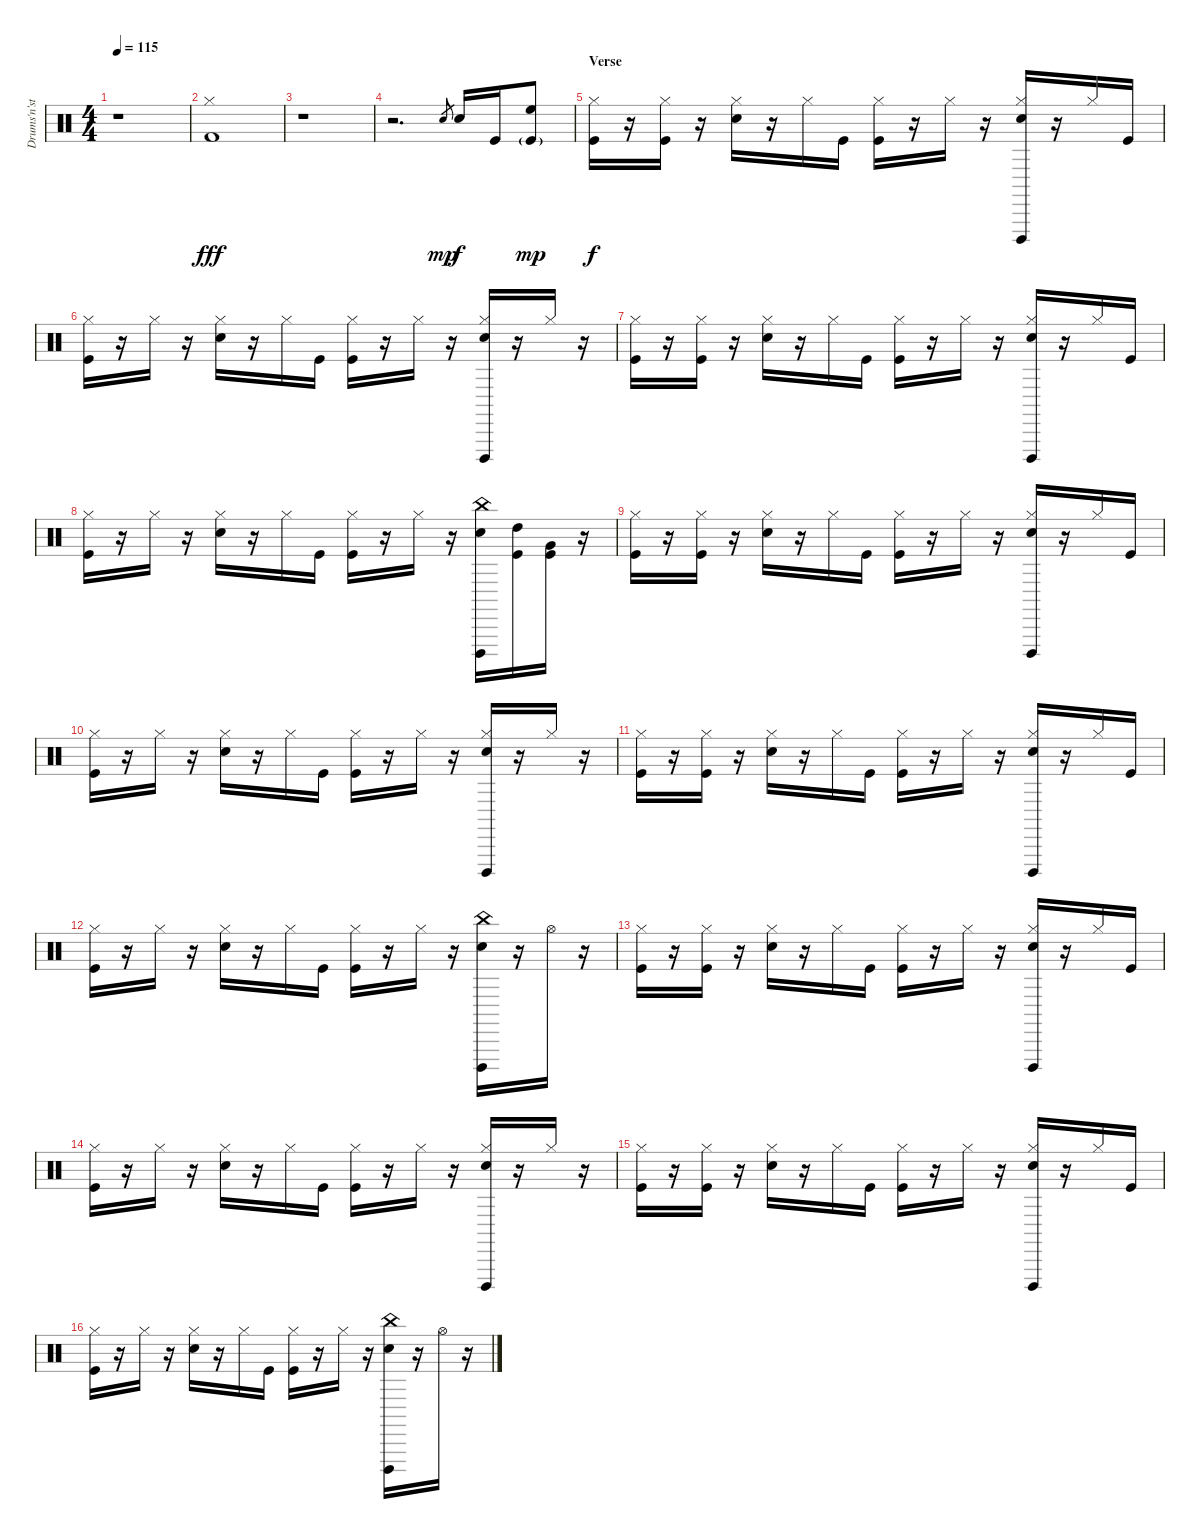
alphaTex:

\track ("Drums'n'stuff" "Drums'n'st") {instrument percussion}
\staff {score}
\articulation defaults
\ts (4 4)
\tempo 115
\clef neutral
\ks c
r.1{dy fff volume 11} |
("Hi-Hat (closed)" "Kick (hit) 2").1 |
r.1 |
r.2{d volume 14} "Electric Snare (hit)".8{gr dy mp} "Electric Snare (hit)".16{dy f} "Kick (hit)".16 ("High Floor Tom (hit)" "Kick (hit)"{g}).8{dy mp} |
\section ("" "Verse")
("Hi-Hat (closed)" "Kick (hit)").16{dy f} r.16 ("Hi-Hat (closed)" "Kick (hit)").16 r.16 ("Hi-Hat (closed)" "Electric Snare (hit)").16 r.16 "Hi-Hat (closed)".16 "Kick (hit)".16 ("Hi-Hat (closed)" "Kick (hit)").16 r.16 "Hi-Hat (closed)".16 r.16 ("Hi-Hat (closed)" "Electric Snare (hit)" "Cuica (open)").16 r.16 "Hi-Hat (closed)".16 "Kick (hit)".16 |
("Hi-Hat (closed)" "Kick (hit)").16 r.16 "Hi-Hat (closed)".16 r.16 ("Hi-Hat (closed)" "Electric Snare (hit)").16 r.16 "Hi-Hat (closed)".16 "Kick (hit)".16 ("Hi-Hat (closed)" "Kick (hit)").16 r.16 "Hi-Hat (closed)".16 r.16 ("Hi-Hat (closed)" "Electric Snare (hit)" "Cuica (open)").16 r.16 "Hi-Hat (closed)".16 r.16 |
("Hi-Hat (closed)" "Kick (hit)").16 r.16 ("Hi-Hat (closed)" "Kick (hit)").16 r.16 ("Hi-Hat (closed)" "Electric Snare (hit)").16 r.16 "Hi-Hat (closed)".16 "Kick (hit)".16 ("Hi-Hat (closed)" "Kick (hit)").16 r.16 "Hi-Hat (closed)".16 r.16 ("Hi-Hat (closed)" "Electric Snare (hit)" "Cuica (open)").16 r.16 "Hi-Hat (closed)".16 "Kick (hit)".16 |
("Hi-Hat (closed)" "Kick (hit)").16 r.16 "Hi-Hat (closed)".16 r.16 ("Hi-Hat (closed)" "Electric Snare (hit)").16 r.16 "Hi-Hat (closed)".16 "Kick (hit)".16 ("Hi-Hat (closed)" "Kick (hit)").16 r.16 "Hi-Hat (closed)".16 r.16 ("China (hit)" "Electric Snare (hit)" "Cuica (open)").16 ("High Tom (hit)" "Kick (hit)").16 ("Very Low Tom (hit)" "Kick (hit)").16 r.16 |
("Hi-Hat (closed)" "Kick (hit)").16 r.16 ("Hi-Hat (closed)" "Kick (hit)").16 r.16 ("Hi-Hat (closed)" "Electric Snare (hit)").16 r.16 "Hi-Hat (closed)".16 "Kick (hit)".16 ("Hi-Hat (closed)" "Kick (hit)").16 r.16 "Hi-Hat (closed)".16 r.16 ("Hi-Hat (closed)" "Electric Snare (hit)" "Cuica (open)").16 r.16 "Hi-Hat (closed)".16 "Kick (hit)".16 |
("Hi-Hat (closed)" "Kick (hit)").16 r.16 "Hi-Hat (closed)".16 r.16 ("Hi-Hat (closed)" "Electric Snare (hit)").16 r.16 "Hi-Hat (closed)".16 "Kick (hit)".16 ("Hi-Hat (closed)" "Kick (hit)").16 r.16 "Hi-Hat (closed)".16 r.16 ("Hi-Hat (closed)" "Electric Snare (hit)" "Cuica (open)").16 r.16 "Hi-Hat (closed)".16 r.16 |
("Hi-Hat (closed)" "Kick (hit)").16 r.16 ("Hi-Hat (closed)" "Kick (hit)").16 r.16 ("Hi-Hat (closed)" "Electric Snare (hit)").16 r.16 "Hi-Hat (closed)".16 "Kick (hit)".16 ("Hi-Hat (closed)" "Kick (hit)").16 r.16 "Hi-Hat (closed)".16 r.16 ("Hi-Hat (closed)" "Electric Snare (hit)" "Cuica (open)").16 r.16 "Hi-Hat (closed)".16 "Kick (hit)".16 |
("Hi-Hat (closed)" "Kick (hit)").16 r.16 "Hi-Hat (closed)".16 r.16 ("Hi-Hat (closed)" "Electric Snare (hit)").16 r.16 "Hi-Hat (closed)".16 "Kick (hit)".16 ("Hi-Hat (closed)" "Kick (hit)").16 r.16 "Hi-Hat (closed)".16 r.16 ("China (hit)" "Electric Snare (hit)" "Cuica (open)").16 r.16 "Hi-Hat (open)".16 r.16 |
("Hi-Hat (closed)" "Kick (hit)").16 r.16 ("Hi-Hat (closed)" "Kick (hit)").16 r.16 ("Hi-Hat (closed)" "Electric Snare (hit)").16 r.16 "Hi-Hat (closed)".16 "Kick (hit)".16 ("Hi-Hat (closed)" "Kick (hit)").16 r.16 "Hi-Hat (closed)".16 r.16 ("Hi-Hat (closed)" "Electric Snare (hit)" "Cuica (open)").16 r.16 "Hi-Hat (closed)".16 "Kick (hit)".16 |
("Hi-Hat (closed)" "Kick (hit)").16 r.16 "Hi-Hat (closed)".16 r.16 ("Hi-Hat (closed)" "Electric Snare (hit)").16 r.16 "Hi-Hat (closed)".16 "Kick (hit)".16 ("Hi-Hat (closed)" "Kick (hit)").16 r.16 "Hi-Hat (closed)".16 r.16 ("Hi-Hat (closed)" "Electric Snare (hit)" "Cuica (open)").16 r.16 "Hi-Hat (closed)".16 r.16 |
("Hi-Hat (closed)" "Kick (hit)").16 r.16 ("Hi-Hat (closed)" "Kick (hit)").16 r.16 ("Hi-Hat (closed)" "Electric Snare (hit)").16 r.16 "Hi-Hat (closed)".16 "Kick (hit)".16 ("Hi-Hat (closed)" "Kick (hit)").16 r.16 "Hi-Hat (closed)".16 r.16 ("Hi-Hat (closed)" "Electric Snare (hit)" "Cuica (open)").16 r.16 "Hi-Hat (closed)".16 "Kick (hit)".16 |
("Hi-Hat (closed)" "Kick (hit)").16 r.16 "Hi-Hat (closed)".16 r.16 ("Hi-Hat (closed)" "Electric Snare (hit)").16 r.16 "Hi-Hat (closed)".16 "Kick (hit)".16 ("Hi-Hat (closed)" "Kick (hit)").16 r.16 "Hi-Hat (closed)".16 r.16 ("China (hit)" "Electric Snare (hit)" "Cuica (open)").16 r.16 "Hi-Hat (open)".16 r.16
